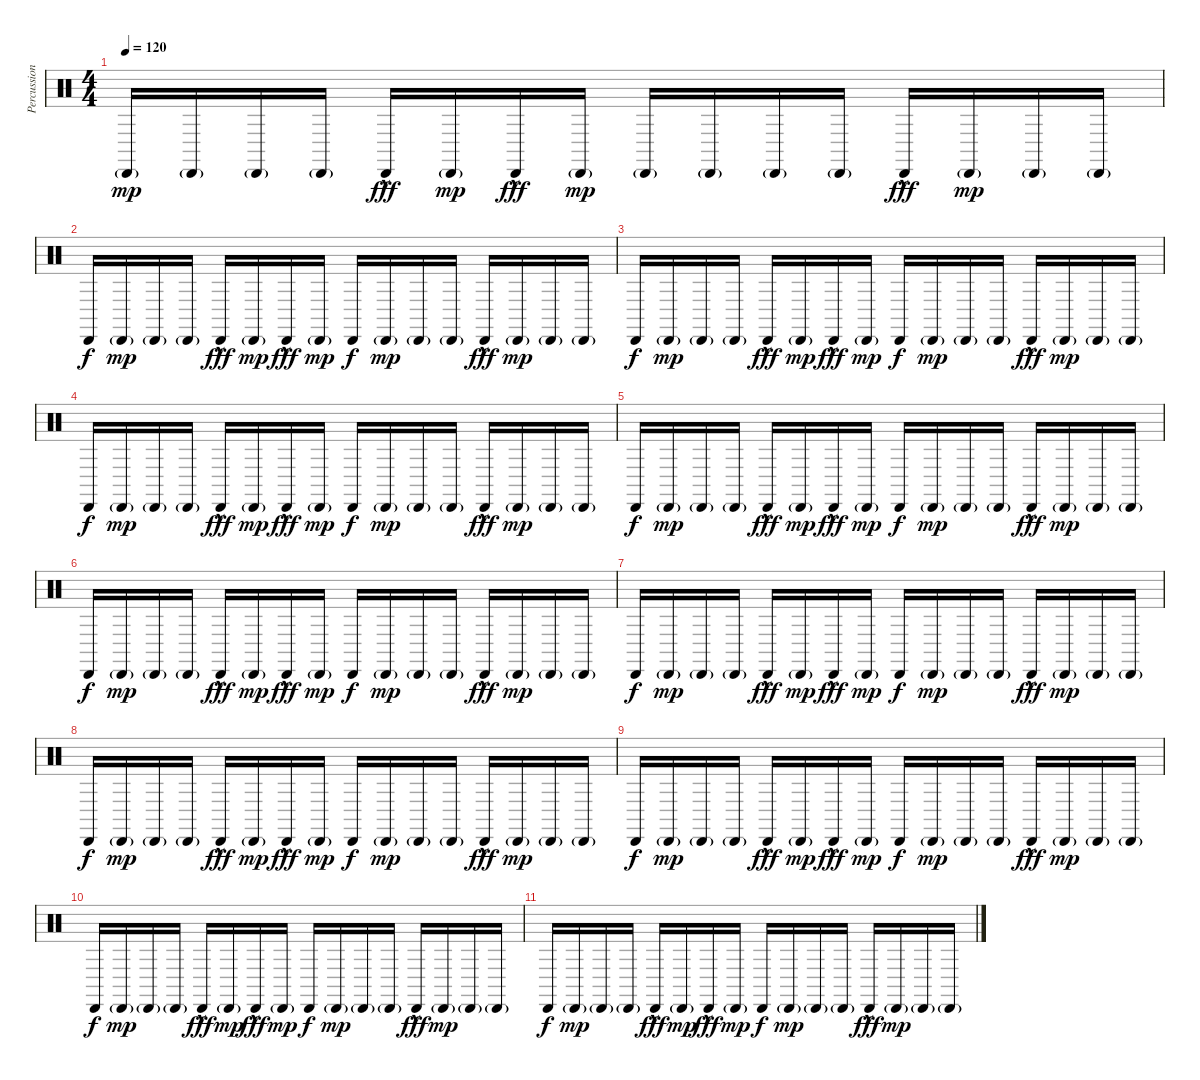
\track ("Percussions" "Percussion") {instrument percussion}
\staff {score}
\articulation defaults
\ts (4 4)
\tempo 120
\clef neutral
\ks c "Cabasa (hit)"{g}.16{dy mp} "Cabasa (hit)"{g}.16 "Cabasa (hit)"{g}.16 "Cabasa (hit)"{g}.16 "Cabasa (hit)"{hac}.16{dy fff} "Cabasa (hit)"{g}.16{dy mp} "Cabasa (hit)"{hac}.16{dy fff} "Cabasa (hit)"{g}.16{dy mp} "Cabasa (hit)"{g}.16 "Cabasa (hit)"{g}.16 "Cabasa (hit)"{g}.16 "Cabasa (hit)"{g}.16 "Cabasa (hit)"{hac}.16{dy fff} "Cabasa (hit)"{g}.16{dy mp} "Cabasa (hit)"{g}.16 "Cabasa (hit)"{g}.16
|
"Cabasa (hit)".16{dy f} "Cabasa (hit)"{g}.16{dy mp} "Cabasa (hit)"{g}.16 "Cabasa (hit)"{g}.16 "Cabasa (hit)"{hac}.16{dy fff} "Cabasa (hit)"{g}.16{dy mp} "Cabasa (hit)"{hac}.16{dy fff} "Cabasa (hit)"{g}.16{dy mp} "Cabasa (hit)".16{dy f} "Cabasa (hit)"{g}.16{dy mp} "Cabasa (hit)"{g}.16 "Cabasa (hit)"{g}.16 "Cabasa (hit)"{hac}.16{dy fff} "Cabasa (hit)"{g}.16{dy mp} "Cabasa (hit)"{g}.16 "Cabasa (hit)"{g}.16 |
"Cabasa (hit)".16{dy f} "Cabasa (hit)"{g}.16{dy mp} "Cabasa (hit)"{g}.16 "Cabasa (hit)"{g}.16 "Cabasa (hit)"{hac}.16{dy fff} "Cabasa (hit)"{g}.16{dy mp} "Cabasa (hit)"{hac}.16{dy fff} "Cabasa (hit)"{g}.16{dy mp} "Cabasa (hit)".16{dy f} "Cabasa (hit)"{g}.16{dy mp} "Cabasa (hit)"{g}.16 "Cabasa (hit)"{g}.16 "Cabasa (hit)"{hac}.16{dy fff} "Cabasa (hit)"{g}.16{dy mp} "Cabasa (hit)"{g}.16 "Cabasa (hit)"{g}.16 |
"Cabasa (hit)".16{dy f} "Cabasa (hit)"{g}.16{dy mp} "Cabasa (hit)"{g}.16 "Cabasa (hit)"{g}.16 "Cabasa (hit)"{hac}.16{dy fff} "Cabasa (hit)"{g}.16{dy mp} "Cabasa (hit)"{hac}.16{dy fff} "Cabasa (hit)"{g}.16{dy mp} "Cabasa (hit)".16{dy f} "Cabasa (hit)"{g}.16{dy mp} "Cabasa (hit)"{g}.16 "Cabasa (hit)"{g}.16 "Cabasa (hit)"{hac}.16{dy fff} "Cabasa (hit)"{g}.16{dy mp} "Cabasa (hit)"{g}.16 "Cabasa (hit)"{g}.16 |
"Cabasa (hit)".16{dy f} "Cabasa (hit)"{g}.16{dy mp} "Cabasa (hit)"{g}.16 "Cabasa (hit)"{g}.16 "Cabasa (hit)"{hac}.16{dy fff} "Cabasa (hit)"{g}.16{dy mp} "Cabasa (hit)"{hac}.16{dy fff} "Cabasa (hit)"{g}.16{dy mp} "Cabasa (hit)".16{dy f} "Cabasa (hit)"{g}.16{dy mp} "Cabasa (hit)"{g}.16 "Cabasa (hit)"{g}.16 "Cabasa (hit)"{hac}.16{dy fff} "Cabasa (hit)"{g}.16{dy mp} "Cabasa (hit)"{g}.16 "Cabasa (hit)"{g}.16 |
"Cabasa (hit)".16{dy f} "Cabasa (hit)"{g}.16{dy mp} "Cabasa (hit)"{g}.16 "Cabasa (hit)"{g}.16 "Cabasa (hit)"{hac}.16{dy fff} "Cabasa (hit)"{g}.16{dy mp} "Cabasa (hit)"{hac}.16{dy fff} "Cabasa (hit)"{g}.16{dy mp} "Cabasa (hit)".16{dy f} "Cabasa (hit)"{g}.16{dy mp} "Cabasa (hit)"{g}.16 "Cabasa (hit)"{g}.16 "Cabasa (hit)"{hac}.16{dy fff} "Cabasa (hit)"{g}.16{dy mp} "Cabasa (hit)"{g}.16 "Cabasa (hit)"{g}.16 |
"Cabasa (hit)".16{dy f} "Cabasa (hit)"{g}.16{dy mp} "Cabasa (hit)"{g}.16 "Cabasa (hit)"{g}.16 "Cabasa (hit)"{hac}.16{dy fff} "Cabasa (hit)"{g}.16{dy mp} "Cabasa (hit)"{hac}.16{dy fff} "Cabasa (hit)"{g}.16{dy mp} "Cabasa (hit)".16{dy f} "Cabasa (hit)"{g}.16{dy mp} "Cabasa (hit)"{g}.16 "Cabasa (hit)"{g}.16 "Cabasa (hit)"{hac}.16{dy fff} "Cabasa (hit)"{g}.16{dy mp} "Cabasa (hit)"{g}.16 "Cabasa (hit)"{g}.16 |
"Cabasa (hit)".16{dy f volume 0} "Cabasa (hit)"{g}.16{dy mp} "Cabasa (hit)"{g}.16 "Cabasa (hit)"{g}.16 "Cabasa (hit)"{hac}.16{dy fff} "Cabasa (hit)"{g}.16{dy mp} "Cabasa (hit)"{hac}.16{dy fff} "Cabasa (hit)"{g}.16{dy mp} "Cabasa (hit)".16{dy f} "Cabasa (hit)"{g}.16{dy mp} "Cabasa (hit)"{g}.16 "Cabasa (hit)"{g}.16 "Cabasa (hit)"{hac}.16{dy fff} "Cabasa (hit)"{g}.16{dy mp} "Cabasa (hit)"{g}.16 "Cabasa (hit)"{g}.16 |
"Cabasa (hit)".16{dy f} "Cabasa (hit)"{g}.16{dy mp} "Cabasa (hit)"{g}.16 "Cabasa (hit)"{g}.16 "Cabasa (hit)"{hac}.16{dy fff} "Cabasa (hit)"{g}.16{dy mp} "Cabasa (hit)"{hac}.16{dy fff} "Cabasa (hit)"{g}.16{dy mp} "Cabasa (hit)".16{dy f} "Cabasa (hit)"{g}.16{dy mp} "Cabasa (hit)"{g}.16 "Cabasa (hit)"{g}.16 "Cabasa (hit)"{hac}.16{dy fff} "Cabasa (hit)"{g}.16{dy mp} "Cabasa (hit)"{g}.16 "Cabasa (hit)"{g}.16 |
"Cabasa (hit)".16{dy f} "Cabasa (hit)"{g}.16{dy mp} "Cabasa (hit)"{g}.16 "Cabasa (hit)"{g}.16 "Cabasa (hit)"{hac}.16{dy fff} "Cabasa (hit)"{g}.16{dy mp} "Cabasa (hit)"{hac}.16{dy fff} "Cabasa (hit)"{g}.16{dy mp} "Cabasa (hit)".16{dy f} "Cabasa (hit)"{g}.16{dy mp} "Cabasa (hit)"{g}.16 "Cabasa (hit)"{g}.16 "Cabasa (hit)"{hac}.16{dy fff} "Cabasa (hit)"{g}.16{dy mp} "Cabasa (hit)"{g}.16 "Cabasa (hit)"{g}.16 |
"Cabasa (hit)".16{dy f} "Cabasa (hit)"{g}.16{dy mp} "Cabasa (hit)"{g}.16 "Cabasa (hit)"{g}.16 "Cabasa (hit)"{hac}.16{dy fff} "Cabasa (hit)"{g}.16{dy mp} "Cabasa (hit)"{hac}.16{dy fff} "Cabasa (hit)"{g}.16{dy mp} "Cabasa (hit)".16{dy f} "Cabasa (hit)"{g}.16{dy mp} "Cabasa (hit)"{g}.16 "Cabasa (hit)"{g}.16 "Cabasa (hit)"{hac}.16{dy fff} "Cabasa (hit)"{g}.16{dy mp} "Cabasa (hit)"{g}.16 "Cabasa (hit)"{g}.16
